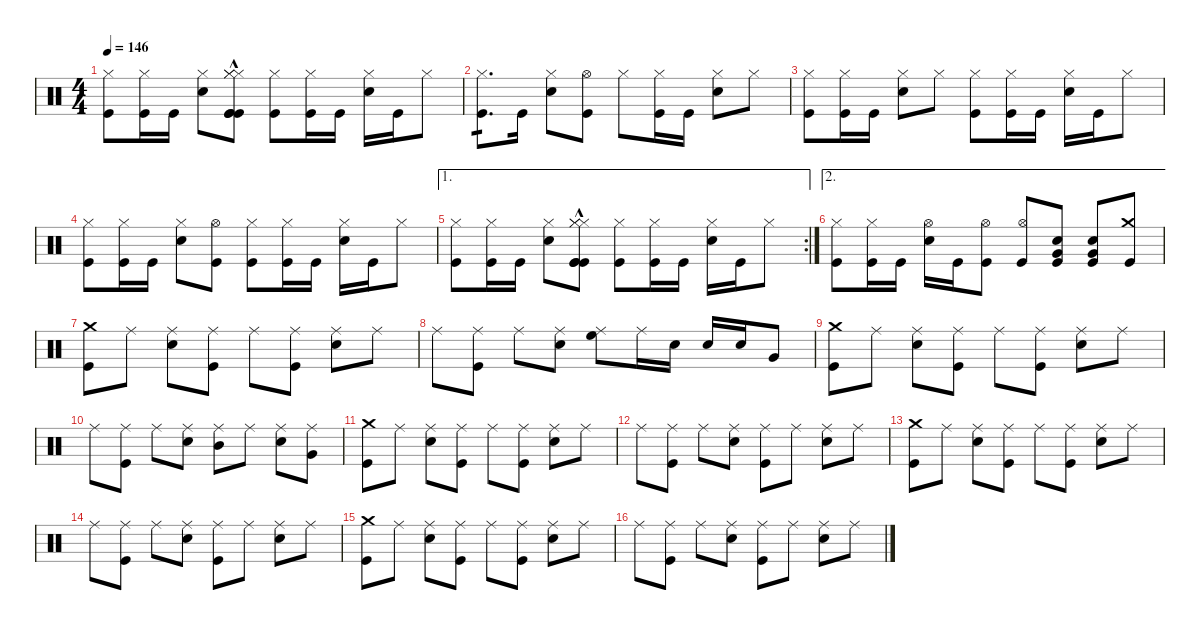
\defaultSystemsLayout 4
\hideDynamics
\bracketExtendMode nobrackets
\singleTrackTrackNamePolicy hidden
\multiTrackTrackNamePolicy hidden
\firstSystemTrackNameMode fullname
\firstSystemTrackNameOrientation horizontal
\otherSystemsTrackNameOrientation horizontal
\track ("Drums" "drm.") {instrument percussion}
\staff {score}
\articulation defaults
\ts (4 4)
\tempo 146
\clef neutral
\ks c
("Hi-Hat (closed)" "Kick (hit)").8{dy f beam Down} ("Hi-Hat (closed)" "Kick (hit)").16{beam Down} "Kick (hit)".16{beam Down} ("Hi-Hat (closed)" "Snare (hit) 2").8{beam Down} ("Hi-Hat (closed)"{hac} "Hi-Hat (closed)"{hac} "Hi-Hat (closed)"{hac} "Kick (hit)"{hac} "Kick (hit)"{hac} "Kick (hit)"{hac}).8{beam Down} ("Hi-Hat (closed)" "Kick (hit)").8{beam Down} ("Hi-Hat (closed)" "Kick (hit)").16{beam Down} "Kick (hit)".16{beam Down} ("Hi-Hat (closed)" "Snare (hit) 2").16{beam Down} "Kick (hit)".16{beam Down} "Hi-Hat (closed)".8{beam Down} |
("Hi-Hat (closed)" "Kick (hit)").8{d tp 1 beam Down} "Kick (hit)".16{beam Down} ("Hi-Hat (closed)" "Snare (hit) 2").8{beam Down} ("Hi-Hat (open)" "Kick (hit)").8{beam Down} "Hi-Hat (closed)".8{beam Down} ("Hi-Hat (closed)" "Kick (hit)").16{beam Down} "Kick (hit)".16{beam Down} ("Hi-Hat (closed)" "Snare (hit) 2").8{beam Down} "Hi-Hat (closed)".8{beam Down} |
("Hi-Hat (closed)" "Kick (hit)").8{beam Down} ("Hi-Hat (closed)" "Kick (hit)").16{beam Down} "Kick (hit)".16{beam Down} ("Hi-Hat (closed)" "Snare (hit) 2").8{beam Down} "Hi-Hat (closed)".8{beam Down} ("Hi-Hat (closed)" "Kick (hit)").8{beam Down} ("Hi-Hat (closed)" "Kick (hit)").16{beam Down} "Kick (hit)".16{beam Down} ("Hi-Hat (closed)" "Snare (hit) 2").16{beam Down} "Kick (hit)".16{beam Down} "Hi-Hat (closed)".8{beam Down} |
("Hi-Hat (closed)" "Kick (hit)").8{beam Down} ("Hi-Hat (closed)" "Kick (hit)").16{beam Down} "Kick (hit)".16{beam Down} ("Hi-Hat (closed)" "Snare (hit) 2").8{beam Down} ("Hi-Hat (open)" "Kick (hit)").8{beam Down} ("Hi-Hat (closed)" "Kick (hit)").8{beam Down} ("Hi-Hat (closed)" "Kick (hit)").16{beam Down} "Kick (hit)".16{beam Down} ("Hi-Hat (closed)" "Snare (hit) 2").16{beam Down} "Kick (hit)".16{beam Down} "Hi-Hat (closed)".8{beam Down} |
\ae 1
\rc 2
("Hi-Hat (closed)" "Kick (hit)").8{beam Down} ("Hi-Hat (closed)" "Kick (hit)").16{beam Down} "Kick (hit)".16{beam Down} ("Hi-Hat (closed)" "Snare (hit) 2").8{beam Down} ("Hi-Hat (closed)"{hac} "Hi-Hat (closed)"{hac} "Hi-Hat (closed)"{hac} "Kick (hit)"{hac} "Kick (hit)"{hac} "Kick (hit)"{hac}).8{beam Down} ("Hi-Hat (closed)" "Kick (hit)").8{beam Down} ("Hi-Hat (closed)" "Kick (hit)").16{beam Down} "Kick (hit)".16{beam Down} ("Hi-Hat (closed)" "Snare (hit) 2").16{beam Down} "Kick (hit)".16{beam Down} "Hi-Hat (closed)".8{beam Down} |
\ae 2
("Hi-Hat (closed)" "Kick (hit)").8{beam Down} ("Hi-Hat (closed)" "Kick (hit)").16{beam Down} "Kick (hit)".16{beam Down} ("Hi-Hat (open)" "Snare (hit) 2").16{beam Down} "Kick (hit)".16{beam Down} ("Hi-Hat (open)" "Kick (hit)").8{beam Down} ("Hi-Hat (open)" "Kick (hit)").8{beam Up} ("Very Low Tom (hit)" "Snare (hit) 2" "Kick (hit)").8{beam Up} ("Very Low Tom (hit)" "Snare (hit) 2" "Kick (hit)").8{beam Up} ("Crash medium (hit)" "Kick (hit)").8{beam Up} |
("Crash medium (hit)" "Kick (hit)").8{beam Down} "Ride (middle)".8{beam Down} ("Ride (middle)" "Snare (hit) 2").8{beam Down} ("Ride (middle)" "Kick (hit)").8{beam Down} "Ride (middle)".8{beam Down} ("Ride (middle)" "Kick (hit)").8{beam Down} ("Ride (middle)" "Snare (hit) 2").8{beam Down} "Ride (middle)".8{beam Down} |
"Ride (middle)".8{beam Down} ("Ride (middle)" "Kick (hit)").8{beam Down} "Ride (middle)".8{beam Down} ("Ride (middle)" "Snare (hit) 2").8{beam Down} ("Ride (middle)" "High Floor Tom (hit)").8{beam Down} "Ride (middle)".16{beam Down} "Snare (hit) 2".16{beam Down} "Snare (hit) 2".16{beam Up} "Snare (hit) 2".16{beam Up} "Very Low Tom (hit)".8{beam Up} |
("Crash medium (hit)" "Kick (hit)").8{beam Down} "Ride (middle)".8{beam Down} ("Ride (middle)" "Snare (hit) 2").8{beam Down} ("Ride (middle)" "Kick (hit)").8{beam Down} "Ride (middle)".8{beam Down} ("Ride (middle)" "Kick (hit)").8{beam Down} ("Ride (middle)" "Snare (hit) 2").8{beam Down} "Ride (middle)".8{beam Down} |
"Ride (middle)".8{beam Down} ("Ride (middle)" "Kick (hit)").8{beam Down} "Ride (middle)".8{beam Down} ("Ride (middle)" "Snare (hit) 2").8{beam Down} ("Ride (middle)" "Mid Tom (hit)").8{beam Down} "Ride (middle)".8{beam Down} ("Ride (middle)" "Snare (hit) 2").8{beam Down} ("Ride (middle)" "Very Low Tom (hit)").8{beam Down} |
("Crash medium (hit)" "Kick (hit)").8{beam Down} "Ride (middle)".8{beam Down} ("Ride (middle)" "Snare (hit) 2").8{beam Down} ("Ride (middle)" "Kick (hit)").8{beam Down} "Ride (middle)".8{beam Down} ("Ride (middle)" "Kick (hit)").8{beam Down} ("Ride (middle)" "Snare (hit) 2").8{beam Down} "Ride (middle)".8{beam Down} |
"Ride (middle)".8{beam Down} ("Ride (middle)" "Kick (hit)").8{beam Down} "Ride (middle)".8{beam Down} ("Ride (middle)" "Snare (hit) 2").8{beam Down} ("Ride (middle)" "Kick (hit)").8{beam Down} "Ride (middle)".8{beam Down} ("Ride (middle)" "Snare (hit) 2").8{beam Down} "Ride (middle)".8{beam Down} |
("Crash medium (hit)" "Kick (hit)").8{beam Down} "Ride (middle)".8{beam Down} ("Ride (middle)" "Snare (hit) 2").8{beam Down} ("Ride (middle)" "Kick (hit)").8{beam Down} "Ride (middle)".8{beam Down} ("Ride (middle)" "Kick (hit)").8{beam Down} ("Ride (middle)" "Snare (hit) 2").8{beam Down} "Ride (middle)".8{beam Down} |
"Ride (middle)".8{beam Down} ("Ride (middle)" "Kick (hit)").8{beam Down} "Ride (middle)".8{beam Down} ("Ride (middle)" "Snare (hit) 2").8{beam Down} ("Ride (middle)" "Kick (hit)").8{beam Down} "Ride (middle)".8{beam Down} ("Ride (middle)" "Snare (hit) 2").8{beam Down} "Ride (middle)".8{beam Down} |
("Crash medium (hit)" "Kick (hit)").8{beam Down} "Ride (middle)".8{beam Down} ("Ride (middle)" "Snare (hit) 2").8{beam Down} ("Ride (middle)" "Kick (hit)").8{beam Down} "Ride (middle)".8{beam Down} ("Ride (middle)" "Kick (hit)").8{beam Down} ("Ride (middle)" "Snare (hit) 2").8{beam Down} "Ride (middle)".8{beam Down} |
"Ride (middle)".8{beam Down} ("Ride (middle)" "Kick (hit)").8{beam Down} "Ride (middle)".8{beam Down} ("Ride (middle)" "Snare (hit) 2").8{beam Down} ("Ride (middle)" "Kick (hit)").8{beam Down} "Ride (middle)".8{beam Down} ("Ride (middle)" "Snare (hit) 2").8{beam Down} "Ride (middle)".8{beam Down}
